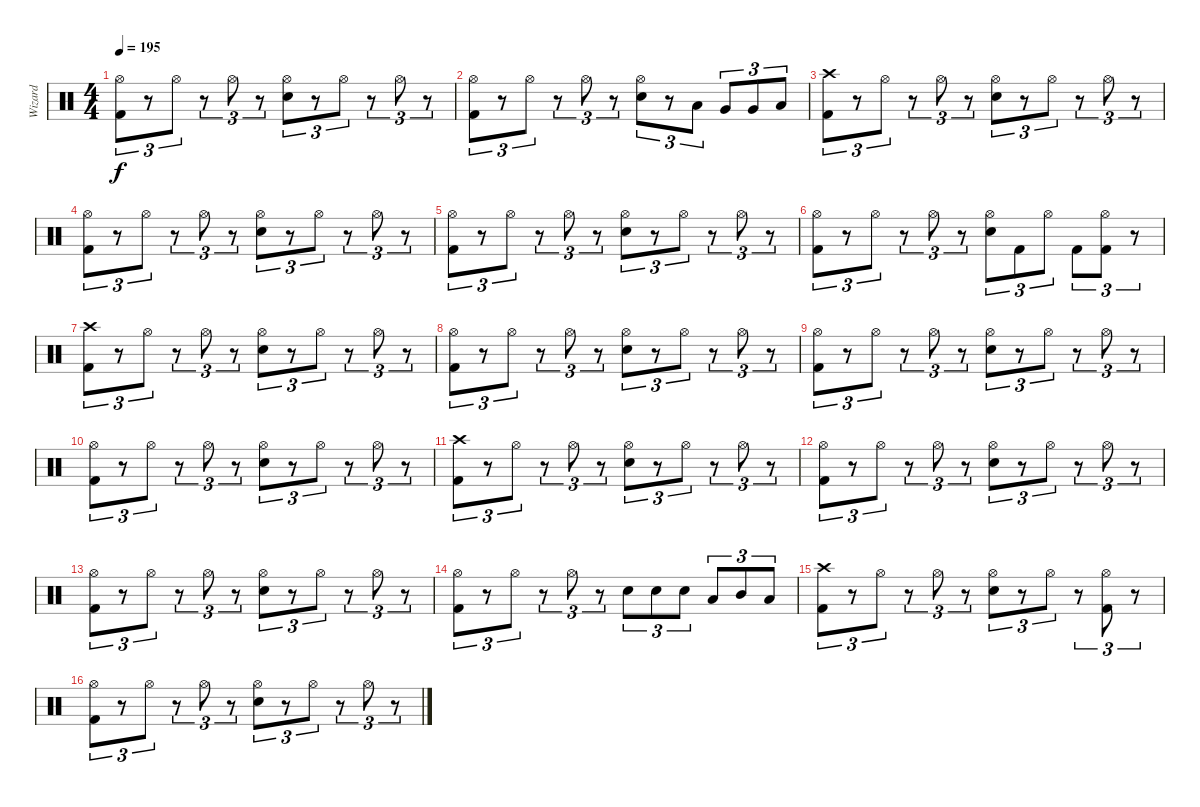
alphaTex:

\track ("Wizard" "Wizard") {instrument percussion}
\staff {score}
\articulation defaults
\ts (4 4)
\tempo 195
\clef neutral
\ks c
("Hi-Hat (open)" "Kick (hit) 2").8{tu (3 2) dy f} r.8{tu (3 2)} "Hi-Hat (open)".8{tu (3 2)} r.8{tu (3 2)} "Hi-Hat (open)".8{tu (3 2)} r.8{tu (3 2)} ("Hi-Hat (open)" "Snare (hit) 2").8{tu (3 2)} r.8{tu (3 2)} "Hi-Hat (open)".8{tu (3 2)} r.8{tu (3 2)} "Hi-Hat (open)".8{tu (3 2)} r.8{tu (3 2)} |
("Hi-Hat (open)" "Kick (hit) 2").8{tu (3 2)} r.8{tu (3 2)} "Hi-Hat (open)".8{tu (3 2)} r.8{tu (3 2)} "Hi-Hat (open)".8{tu (3 2)} r.8{tu (3 2)} ("Hi-Hat (open)" "Snare (hit) 2").8{tu (3 2)} r.8{tu (3 2)} "Low Tom (hit)".8{tu (3 2)} "Very Low Tom (hit)".8{tu (3 2)} "Very Low Tom (hit)".8{tu (3 2)} "Low Tom (hit)".8{tu (3 2)} |
("Crash high (hit)" "Kick (hit) 2").8{tu (3 2)} r.8{tu (3 2)} "Hi-Hat (open)".8{tu (3 2)} r.8{tu (3 2)} "Hi-Hat (open)".8{tu (3 2)} r.8{tu (3 2)} ("Hi-Hat (open)" "Snare (hit) 2").8{tu (3 2)} r.8{tu (3 2)} "Hi-Hat (open)".8{tu (3 2)} r.8{tu (3 2)} "Hi-Hat (open)".8{tu (3 2)} r.8{tu (3 2)} |
("Hi-Hat (open)" "Kick (hit) 2").8{tu (3 2)} r.8{tu (3 2)} "Hi-Hat (open)".8{tu (3 2)} r.8{tu (3 2)} "Hi-Hat (open)".8{tu (3 2)} r.8{tu (3 2)} ("Hi-Hat (open)" "Snare (hit) 2").8{tu (3 2)} r.8{tu (3 2)} "Hi-Hat (open)".8{tu (3 2)} r.8{tu (3 2)} "Hi-Hat (open)".8{tu (3 2)} r.8{tu (3 2)} |
("Hi-Hat (open)" "Kick (hit) 2").8{tu (3 2)} r.8{tu (3 2)} "Hi-Hat (open)".8{tu (3 2)} r.8{tu (3 2)} "Hi-Hat (open)".8{tu (3 2)} r.8{tu (3 2)} ("Hi-Hat (open)" "Snare (hit) 2").8{tu (3 2)} r.8{tu (3 2)} "Hi-Hat (open)".8{tu (3 2)} r.8{tu (3 2)} "Hi-Hat (open)".8{tu (3 2)} r.8{tu (3 2)} |
("Hi-Hat (open)" "Kick (hit) 2").8{tu (3 2)} r.8{tu (3 2)} "Hi-Hat (open)".8{tu (3 2)} r.8{tu (3 2)} "Hi-Hat (open)".8{tu (3 2)} r.8{tu (3 2)} ("Hi-Hat (open)" "Snare (hit) 2").8{tu (3 2)} "Kick (hit) 2".8{tu (3 2)} "Hi-Hat (open)".8{tu (3 2)} "Kick (hit) 2".8{tu (3 2)} ("Hi-Hat (open)" "Kick (hit) 2").8{tu (3 2)} r.8{tu (3 2)} |
("Crash high (hit)" "Kick (hit) 2").8{tu (3 2)} r.8{tu (3 2)} "Hi-Hat (open)".8{tu (3 2)} r.8{tu (3 2)} "Hi-Hat (open)".8{tu (3 2)} r.8{tu (3 2)} ("Hi-Hat (open)" "Snare (hit) 2").8{tu (3 2)} r.8{tu (3 2)} "Hi-Hat (open)".8{tu (3 2)} r.8{tu (3 2)} "Hi-Hat (open)".8{tu (3 2)} r.8{tu (3 2)} |
("Hi-Hat (open)" "Kick (hit) 2").8{tu (3 2)} r.8{tu (3 2)} "Hi-Hat (open)".8{tu (3 2)} r.8{tu (3 2)} "Hi-Hat (open)".8{tu (3 2)} r.8{tu (3 2)} ("Hi-Hat (open)" "Snare (hit) 2").8{tu (3 2)} r.8{tu (3 2)} "Hi-Hat (open)".8{tu (3 2)} r.8{tu (3 2)} "Hi-Hat (open)".8{tu (3 2)} r.8{tu (3 2)} |
("Hi-Hat (open)" "Kick (hit) 2").8{tu (3 2)} r.8{tu (3 2)} "Hi-Hat (open)".8{tu (3 2)} r.8{tu (3 2)} "Hi-Hat (open)".8{tu (3 2)} r.8{tu (3 2)} ("Hi-Hat (open)" "Snare (hit) 2").8{tu (3 2)} r.8{tu (3 2)} "Hi-Hat (open)".8{tu (3 2)} r.8{tu (3 2)} "Hi-Hat (open)".8{tu (3 2)} r.8{tu (3 2)} |
("Hi-Hat (open)" "Kick (hit) 2").8{tu (3 2)} r.8{tu (3 2)} "Hi-Hat (open)".8{tu (3 2)} r.8{tu (3 2)} "Hi-Hat (open)".8{tu (3 2)} r.8{tu (3 2)} ("Hi-Hat (open)" "Snare (hit) 2").8{tu (3 2)} r.8{tu (3 2)} "Hi-Hat (open)".8{tu (3 2)} r.8{tu (3 2)} "Hi-Hat (open)".8{tu (3 2)} r.8{tu (3 2)} |
("Crash high (hit)" "Kick (hit) 2").8{tu (3 2)} r.8{tu (3 2)} "Hi-Hat (open)".8{tu (3 2)} r.8{tu (3 2)} "Hi-Hat (open)".8{tu (3 2)} r.8{tu (3 2)} ("Hi-Hat (open)" "Snare (hit) 2").8{tu (3 2)} r.8{tu (3 2)} "Hi-Hat (open)".8{tu (3 2)} r.8{tu (3 2)} "Hi-Hat (open)".8{tu (3 2)} r.8{tu (3 2)} |
("Hi-Hat (open)" "Kick (hit) 2").8{tu (3 2)} r.8{tu (3 2)} "Hi-Hat (open)".8{tu (3 2)} r.8{tu (3 2)} "Hi-Hat (open)".8{tu (3 2)} r.8{tu (3 2)} ("Hi-Hat (open)" "Snare (hit) 2").8{tu (3 2)} r.8{tu (3 2)} "Hi-Hat (open)".8{tu (3 2)} r.8{tu (3 2)} "Hi-Hat (open)".8{tu (3 2)} r.8{tu (3 2)} |
("Hi-Hat (open)" "Kick (hit) 2").8{tu (3 2)} r.8{tu (3 2)} "Hi-Hat (open)".8{tu (3 2)} r.8{tu (3 2)} "Hi-Hat (open)".8{tu (3 2)} r.8{tu (3 2)} ("Hi-Hat (open)" "Snare (hit) 2").8{tu (3 2)} r.8{tu (3 2)} "Hi-Hat (open)".8{tu (3 2)} r.8{tu (3 2)} "Hi-Hat (open)".8{tu (3 2)} r.8{tu (3 2)} |
("Hi-Hat (open)" "Kick (hit) 2").8{tu (3 2)} r.8{tu (3 2)} "Hi-Hat (open)".8{tu (3 2)} r.8{tu (3 2)} "Hi-Hat (open)".8{tu (3 2)} r.8{tu (3 2)} "Snare (hit) 2".8{tu (3 2)} "Snare (hit) 2".8{tu (3 2)} "Snare (hit) 2".8{tu (3 2)} "Low Tom (hit)".8{tu (3 2)} "Mid Tom (hit)".8{tu (3 2)} "Low Tom (hit)".8{tu (3 2)} |
("Crash high (hit)" "Kick (hit) 2").8{tu (3 2)} r.8{tu (3 2)} "Hi-Hat (open)".8{tu (3 2)} r.8{tu (3 2)} "Hi-Hat (open)".8{tu (3 2)} r.8{tu (3 2)} ("Hi-Hat (open)" "Snare (hit) 2").8{tu (3 2)} r.8{tu (3 2)} "Hi-Hat (open)".8{tu (3 2)} r.8{tu (3 2)} ("Hi-Hat (open)" "Kick (hit) 2").8{tu (3 2)} r.8{tu (3 2)} |
("Hi-Hat (open)" "Kick (hit) 2").8{tu (3 2)} r.8{tu (3 2)} "Hi-Hat (open)".8{tu (3 2)} r.8{tu (3 2)} "Hi-Hat (open)".8{tu (3 2)} r.8{tu (3 2)} ("Hi-Hat (open)" "Snare (hit) 2").8{tu (3 2)} r.8{tu (3 2)} "Hi-Hat (open)".8{tu (3 2)} r.8{tu (3 2)} "Hi-Hat (open)".8{tu (3 2)} r.8{tu (3 2)}
